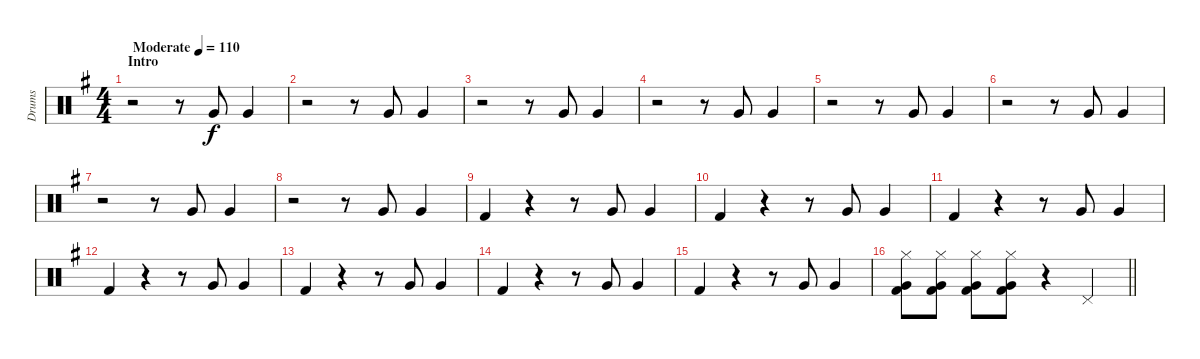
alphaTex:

\track ("Drums" "Drums") {instrument percussion}
\staff {score}
\articulation defaults
\ts (4 4)
\section ("" "Intro")
\tempo (110 "Moderate")
\clef neutral
\ks eminor
r.2{dy f} r.8 "Very Low Tom (hit)".8 "Very Low Tom (hit)".4 |
r.2 r.8 "Very Low Tom (hit)".8 "Very Low Tom (hit)".4 |
r.2 r.8 "Very Low Tom (hit)".8 "Very Low Tom (hit)".4 |
r.2 r.8 "Very Low Tom (hit)".8 "Very Low Tom (hit)".4 |
r.2 r.8 "Very Low Tom (hit)".8 "Very Low Tom (hit)".4 |
r.2 r.8 "Very Low Tom (hit)".8 "Very Low Tom (hit)".4 |
r.2 r.8 "Very Low Tom (hit)".8 "Very Low Tom (hit)".4 |
r.2 r.8 "Very Low Tom (hit)".8 "Very Low Tom (hit)".4 |
"Kick (hit) 2".4 r.4 r.8 "Very Low Tom (hit)".8 "Very Low Tom (hit)".4 |
"Kick (hit) 2".4 r.4 r.8 "Very Low Tom (hit)".8 "Very Low Tom (hit)".4 |
"Kick (hit) 2".4 r.4 r.8 "Very Low Tom (hit)".8 "Very Low Tom (hit)".4 |
"Kick (hit) 2".4 r.4 r.8 "Very Low Tom (hit)".8 "Very Low Tom (hit)".4 |
"Kick (hit) 2".4 r.4 r.8 "Very Low Tom (hit)".8 "Very Low Tom (hit)".4 |
"Kick (hit) 2".4 r.4 r.8 "Very Low Tom (hit)".8 "Very Low Tom (hit)".4 |
"Kick (hit) 2".4 r.4 r.8 "Very Low Tom (hit)".8 "Very Low Tom (hit)".4 |
\barLineRight lightlight
("Hi-Hat (closed)" "Very Low Tom (hit)" "Kick (hit) 2").8 ("Hi-Hat (closed)" "Very Low Tom (hit)" "Kick (hit) 2").8 ("Hi-Hat (closed)" "Very Low Tom (hit)" "Kick (hit) 2").8 ("Hi-Hat (closed)" "Very Low Tom (hit)" "Kick (hit) 2").8 r.4 "Pedal Hi-Hat (hit)".4
